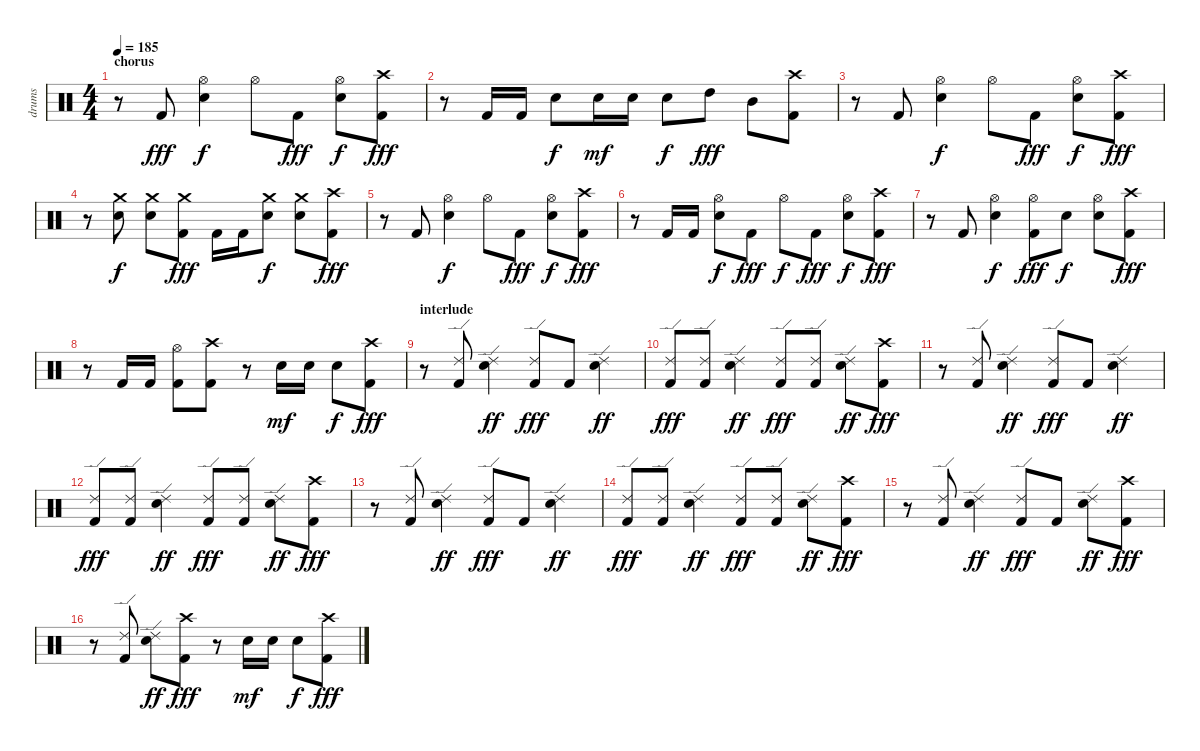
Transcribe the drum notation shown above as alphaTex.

\track ("drums" "drums") {instrument percussion}
\staff {score}
\articulation defaults
\ts (4 4)
\section ("" "chorus")
\tempo 185
\clef neutral
\ks c
r.8{dy fff} "Kick (hit) 2".8 ("Hi-Hat (open)" "Snare (hit) 2").4{dy f} "Hi-Hat (open)".8 "Kick (hit) 2".8{dy fff} ("Hi-Hat (open)" "Snare (hit) 2").8{dy f} ("Crash high (hit)" "Kick (hit) 2").8{dy fff} |
r.8 "Kick (hit) 2".16 "Kick (hit) 2".16 "Snare (hit) 2".8{dy f} "Snare (hit) 2".16{dy mf} "Snare (hit) 2".16 "Snare (hit) 2".8{dy f} "High Tom (hit)".8{dy fff} "Mid Tom (hit)".8 ("Crash high (hit)" "Kick (hit) 2").8 |
r.8 "Kick (hit) 2".8 ("Hi-Hat (open)" "Snare (hit) 2").4{dy f} "Hi-Hat (open)".8 "Kick (hit) 2".8{dy fff} ("Hi-Hat (open)" "Snare (hit) 2").8{dy f} ("Crash high (hit)" "Kick (hit) 2").8{dy fff} |
r.8 ("Crash medium (hit)" "Snare (hit) 2").8{dy f} ("Crash medium (hit)" "Snare (hit) 2").8 ("Crash medium (hit)" "Kick (hit) 2").8{dy fff} "Kick (hit) 2".16 "Kick (hit) 2".16 ("Crash medium (hit)" "Snare (hit) 2").8{dy f} ("Crash medium (hit)" "Snare (hit) 2").8 ("Crash high (hit)" "Kick (hit) 2").8{dy fff} |
r.8 "Kick (hit) 2".8 ("Hi-Hat (open)" "Snare (hit) 2").4{dy f} "Hi-Hat (open)".8 "Kick (hit) 2".8{dy fff} ("Hi-Hat (open)" "Snare (hit) 2").8{dy f} ("Crash high (hit)" "Kick (hit) 2").8{dy fff} |
r.8 "Kick (hit) 2".16 "Kick (hit) 2".16 ("Hi-Hat (open)" "Snare (hit) 2").8{dy f} "Kick (hit) 2".8{dy fff} "Hi-Hat (open)".8{dy f} "Kick (hit) 2".8{dy fff} ("Hi-Hat (open)" "Snare (hit) 2").8{dy f} ("Crash high (hit)" "Kick (hit) 2").8{dy fff} |
r.8 "Kick (hit) 2".8 ("Hi-Hat (open)" "Snare (hit) 2").4{dy f} ("Hi-Hat (open)" "Kick (hit) 2").8{dy fff} "Snare (hit) 2".8{dy f} ("Hi-Hat (open)" "Snare (hit) 2").8 ("Crash high (hit)" "Kick (hit) 2").8{dy fff} |
r.8 "Kick (hit) 2".16 "Kick (hit) 2".16 ("Hi-Hat (open)" "Kick (hit) 2").8 ("Crash high (hit)" "Kick (hit) 2").8 r.8 "Snare (hit) 2".16{dy mf} "Snare (hit) 2".16 "Snare (hit) 2".8{dy f} ("Crash high (hit)" "Kick (hit) 2").8{dy fff} |
\section ("" "interlude")
r.8 ("Ride (edge) 2" "Kick (hit) 2").8 ("Ride (edge) 2" "Snare (hit) 2").4{dy ff} ("Ride (edge) 2" "Kick (hit) 2").8{dy fff} "Kick (hit) 2".8 ("Ride (edge) 2" "Snare (hit) 2").4{dy ff} |
("Ride (edge) 2" "Kick (hit) 2").8{dy fff} ("Ride (edge) 2" "Kick (hit) 2").8 ("Ride (edge) 2" "Snare (hit) 2").4{dy ff} ("Ride (edge) 2" "Kick (hit) 2").8{dy fff} ("Ride (edge) 2" "Kick (hit) 2").8 ("Ride (edge) 2" "Snare (hit) 2").8{dy ff} ("Crash high (hit)" "Kick (hit) 2").8{dy fff} |
r.8 ("Ride (edge) 2" "Kick (hit) 2").8 ("Ride (edge) 2" "Snare (hit) 2").4{dy ff} ("Ride (edge) 2" "Kick (hit) 2").8{dy fff} "Kick (hit) 2".8 ("Ride (edge) 2" "Snare (hit) 2").4{dy ff} |
("Ride (edge) 2" "Kick (hit) 2").8{dy fff} ("Ride (edge) 2" "Kick (hit) 2").8 ("Ride (edge) 2" "Snare (hit) 2").4{dy ff} ("Ride (edge) 2" "Kick (hit) 2").8{dy fff} ("Ride (edge) 2" "Kick (hit) 2").8 ("Ride (edge) 2" "Snare (hit) 2").8{dy ff} ("Crash high (hit)" "Kick (hit) 2").8{dy fff} |
r.8 ("Ride (edge) 2" "Kick (hit) 2").8 ("Ride (edge) 2" "Snare (hit) 2").4{dy ff} ("Ride (edge) 2" "Kick (hit) 2").8{dy fff} "Kick (hit) 2".8 ("Ride (edge) 2" "Snare (hit) 2").4{dy ff} |
("Ride (edge) 2" "Kick (hit) 2").8{dy fff} ("Ride (edge) 2" "Kick (hit) 2").8 ("Ride (edge) 2" "Snare (hit) 2").4{dy ff} ("Ride (edge) 2" "Kick (hit) 2").8{dy fff} ("Ride (edge) 2" "Kick (hit) 2").8 ("Ride (edge) 2" "Snare (hit) 2").8{dy ff} ("Crash high (hit)" "Kick (hit) 2").8{dy fff} |
r.8 ("Ride (edge) 2" "Kick (hit) 2").8 ("Ride (edge) 2" "Snare (hit) 2").4{dy ff} ("Ride (edge) 2" "Kick (hit) 2").8{dy fff} "Kick (hit) 2".8 ("Ride (edge) 2" "Snare (hit) 2").8{dy ff} ("Crash high (hit)" "Kick (hit) 2").8{dy fff} |
r.8 ("Ride (edge) 2" "Kick (hit) 2").8 ("Ride (edge) 2" "Snare (hit) 2").8{dy ff} ("Crash high (hit)" "Kick (hit) 2").8{dy fff} r.8 "Snare (hit) 2".16{dy mf} "Snare (hit) 2".16 "Snare (hit) 2".8{dy f} ("Crash high (hit)" "Kick (hit) 2").8{dy fff}
